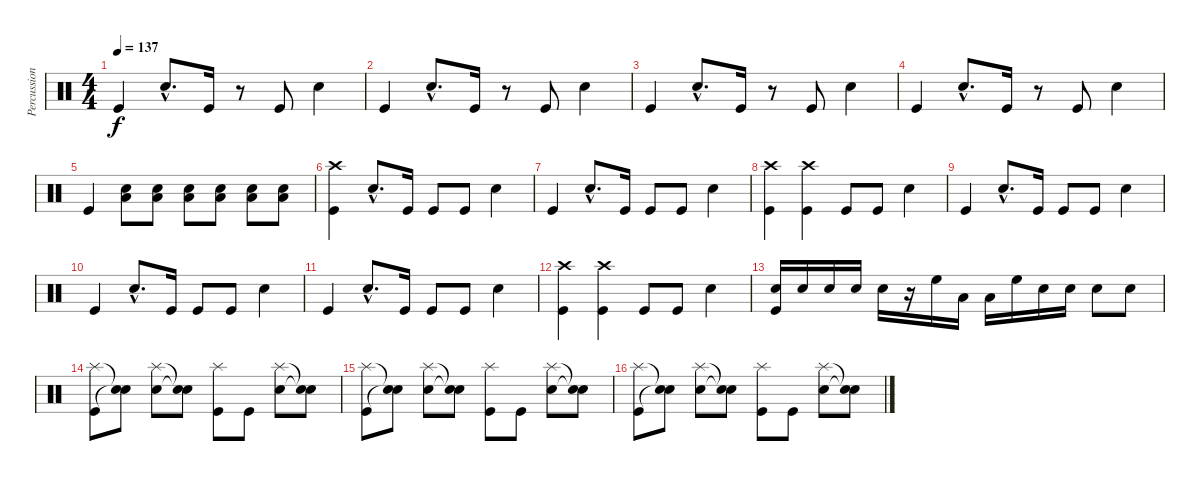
\track ("Percussion" "Percussion") {instrument percussion}
\staff {score}
\articulation defaults
\ts (4 4)
\tempo 137
\clef neutral
\ks c "Kick (hit)".4{dy f} "Snare (hit) 2"{hac}.8{d} "Kick (hit)".16
r.8 "Kick (hit)".8 "Snare (hit) 2".4 |
"Kick (hit)".4 "Snare (hit) 2"{hac}.8{d} "Kick (hit)".16 r.8 "Kick (hit)".8 "Snare (hit) 2".4 |
"Kick (hit)".4 "Snare (hit) 2"{hac}.8{d} "Kick (hit)".16 r.8 "Kick (hit)".8 "Snare (hit) 2".4 |
"Kick (hit)".4 "Snare (hit) 2"{hac}.8{d} "Kick (hit)".16 r.8 "Kick (hit)".8 "Snare (hit) 2".4 |
"Kick (hit)".4 ("Snare (hit) 2" "Low Floor Tom (hit)").8 ("Snare (hit) 2" "Low Floor Tom (hit)").8 ("Snare (hit) 2" "Low Floor Tom (hit)").8 ("Snare (hit) 2" "Low Floor Tom (hit)").8 ("Snare (hit) 2" "Low Floor Tom (hit)").8 ("Snare (hit) 2" "Low Floor Tom (hit)").8 |
("Crash high (hit)" "Kick (hit)").4 "Snare (hit) 2"{hac}.8{d} "Kick (hit)".16 "Kick (hit)".8 "Kick (hit)".8 "Snare (hit) 2".4 |
"Kick (hit)".4 "Snare (hit) 2"{hac}.8{d} "Kick (hit)".16 "Kick (hit)".8 "Kick (hit)".8 "Snare (hit) 2".4 |
("Crash high (hit)" "Kick (hit)").4 ("Crash high (hit)" "Kick (hit)").4 "Kick (hit)".8 "Kick (hit)".8 "Snare (hit) 2".4 |
"Kick (hit)".4 "Snare (hit) 2"{hac}.8{d} "Kick (hit)".16 "Kick (hit)".8 "Kick (hit)".8 "Snare (hit) 2".4 |
"Kick (hit)".4 "Snare (hit) 2"{hac}.8{d} "Kick (hit)".16 "Kick (hit)".8 "Kick (hit)".8 "Snare (hit) 2".4 |
"Kick (hit)".4 "Snare (hit) 2"{hac}.8{d} "Kick (hit)".16 "Kick (hit)".8 "Kick (hit)".8 "Snare (hit) 2".4 |
("Crash high (hit)" "Kick (hit)").4 ("Crash high (hit)" "Kick (hit)").4 "Kick (hit)".8 "Kick (hit)".8 "Snare (hit) 2".4 |
("Snare (hit) 2" "Kick (hit)").16 "Snare (hit) 2".16 "Snare (hit) 2".16 "Snare (hit) 2".16 "Snare (hit) 2".16 r.16 "High Floor Tom (hit)".16 "Low Floor Tom (hit)".16 "Low Floor Tom (hit)".16 "High Floor Tom (hit)".16 "Snare (hit) 2".16 "Snare (hit) 2".16 "Snare (hit) 2".8 "Snare (hit) 2".8 |
("Splash (hit)" "Kick (hit)").8 ("Snare (hit)"{t} "Snare (hit)"{t}).8 ("Splash (hit)" "Snare (hit) 2").8 ("Snare (hit)"{t} "Snare (hit)"{t}).8 ("Splash (hit)" "Kick (hit)").8 "Kick (hit)".8 ("Splash (hit)" "Snare (hit) 2").8 ("Snare (hit)"{t} "Snare (hit)"{t}).8 |
("Splash (hit)" "Kick (hit)").8 ("Snare (hit)"{t} "Snare (hit)"{t}).8 ("Splash (hit)" "Snare (hit) 2").8 ("Snare (hit)"{t} "Snare (hit)"{t}).8 ("Splash (hit)" "Kick (hit)").8 "Kick (hit)".8 ("Splash (hit)" "Snare (hit) 2").8 ("Snare (hit)"{t} "Snare (hit)"{t}).8 |
("Splash (hit)" "Kick (hit)").8 ("Snare (hit)"{t} "Snare (hit)"{t}).8 ("Splash (hit)" "Snare (hit) 2").8 ("Snare (hit)"{t} "Snare (hit)"{t}).8 ("Splash (hit)" "Kick (hit)").8 "Kick (hit)".8 ("Splash (hit)" "Snare (hit) 2").8 ("Snare (hit)"{t} "Snare (hit)"{t}).8
